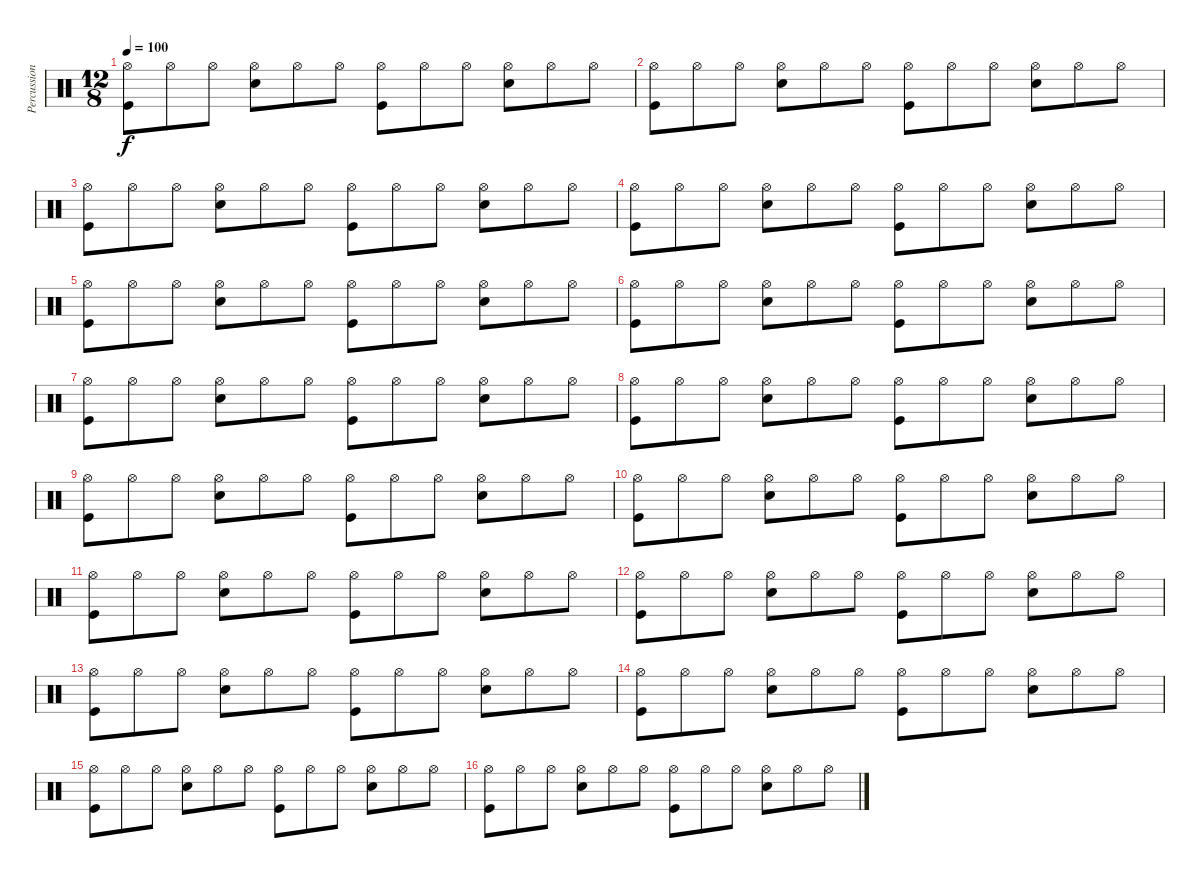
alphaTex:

\track ("Percussion" "Percussion") {instrument percussion}
\staff {score}
\articulation defaults
\ts (12 8)
\tempo 100
\clef neutral
\ks c
("Hi-Hat (open)" "Kick (hit)").8{dy f} "Hi-Hat (open)".8 "Hi-Hat (open)".8 ("Hi-Hat (open)" "Snare (hit) 2").8 "Hi-Hat (open)".8 "Hi-Hat (open)".8 ("Hi-Hat (open)" "Kick (hit)").8 "Hi-Hat (open)".8 "Hi-Hat (open)".8 ("Hi-Hat (open)" "Snare (hit) 2").8 "Hi-Hat (open)".8 "Hi-Hat (open)".8 |
("Hi-Hat (open)" "Kick (hit)").8 "Hi-Hat (open)".8 "Hi-Hat (open)".8 ("Hi-Hat (open)" "Snare (hit) 2").8 "Hi-Hat (open)".8 "Hi-Hat (open)".8 ("Hi-Hat (open)" "Kick (hit)").8 "Hi-Hat (open)".8 "Hi-Hat (open)".8 ("Hi-Hat (open)" "Snare (hit) 2").8 "Hi-Hat (open)".8 "Hi-Hat (open)".8 |
("Hi-Hat (open)" "Kick (hit)").8 "Hi-Hat (open)".8 "Hi-Hat (open)".8 ("Hi-Hat (open)" "Snare (hit) 2").8 "Hi-Hat (open)".8 "Hi-Hat (open)".8 ("Hi-Hat (open)" "Kick (hit)").8 "Hi-Hat (open)".8 "Hi-Hat (open)".8 ("Hi-Hat (open)" "Snare (hit) 2").8 "Hi-Hat (open)".8 "Hi-Hat (open)".8 |
("Hi-Hat (open)" "Kick (hit)").8 "Hi-Hat (open)".8 "Hi-Hat (open)".8 ("Hi-Hat (open)" "Snare (hit) 2").8 "Hi-Hat (open)".8 "Hi-Hat (open)".8 ("Hi-Hat (open)" "Kick (hit)").8 "Hi-Hat (open)".8 "Hi-Hat (open)".8 ("Hi-Hat (open)" "Snare (hit) 2").8 "Hi-Hat (open)".8 "Hi-Hat (open)".8 |
("Hi-Hat (open)" "Kick (hit)").8 "Hi-Hat (open)".8 "Hi-Hat (open)".8 ("Hi-Hat (open)" "Snare (hit) 2").8 "Hi-Hat (open)".8 "Hi-Hat (open)".8 ("Hi-Hat (open)" "Kick (hit)").8 "Hi-Hat (open)".8 "Hi-Hat (open)".8 ("Hi-Hat (open)" "Snare (hit) 2").8 "Hi-Hat (open)".8 "Hi-Hat (open)".8 |
("Hi-Hat (open)" "Kick (hit)").8 "Hi-Hat (open)".8 "Hi-Hat (open)".8 ("Hi-Hat (open)" "Snare (hit) 2").8 "Hi-Hat (open)".8 "Hi-Hat (open)".8 ("Hi-Hat (open)" "Kick (hit)").8 "Hi-Hat (open)".8 "Hi-Hat (open)".8 ("Hi-Hat (open)" "Snare (hit) 2").8 "Hi-Hat (open)".8 "Hi-Hat (open)".8 |
("Hi-Hat (open)" "Kick (hit)").8 "Hi-Hat (open)".8 "Hi-Hat (open)".8 ("Hi-Hat (open)" "Snare (hit) 2").8 "Hi-Hat (open)".8 "Hi-Hat (open)".8 ("Hi-Hat (open)" "Kick (hit)").8 "Hi-Hat (open)".8 "Hi-Hat (open)".8 ("Hi-Hat (open)" "Snare (hit) 2").8 "Hi-Hat (open)".8 "Hi-Hat (open)".8 |
("Hi-Hat (open)" "Kick (hit)").8 "Hi-Hat (open)".8 "Hi-Hat (open)".8 ("Hi-Hat (open)" "Snare (hit) 2").8 "Hi-Hat (open)".8 "Hi-Hat (open)".8 ("Hi-Hat (open)" "Kick (hit)").8 "Hi-Hat (open)".8 "Hi-Hat (open)".8 ("Hi-Hat (open)" "Snare (hit) 2").8 "Hi-Hat (open)".8 "Hi-Hat (open)".8 |
("Hi-Hat (open)" "Kick (hit)").8 "Hi-Hat (open)".8 "Hi-Hat (open)".8 ("Hi-Hat (open)" "Snare (hit) 2").8 "Hi-Hat (open)".8 "Hi-Hat (open)".8 ("Hi-Hat (open)" "Kick (hit)").8 "Hi-Hat (open)".8 "Hi-Hat (open)".8 ("Hi-Hat (open)" "Snare (hit) 2").8 "Hi-Hat (open)".8 "Hi-Hat (open)".8 |
("Hi-Hat (open)" "Kick (hit)").8 "Hi-Hat (open)".8 "Hi-Hat (open)".8 ("Hi-Hat (open)" "Snare (hit) 2").8 "Hi-Hat (open)".8 "Hi-Hat (open)".8 ("Hi-Hat (open)" "Kick (hit)").8 "Hi-Hat (open)".8 "Hi-Hat (open)".8 ("Hi-Hat (open)" "Snare (hit) 2").8 "Hi-Hat (open)".8 "Hi-Hat (open)".8 |
("Hi-Hat (open)" "Kick (hit)").8 "Hi-Hat (open)".8 "Hi-Hat (open)".8 ("Hi-Hat (open)" "Snare (hit) 2").8 "Hi-Hat (open)".8 "Hi-Hat (open)".8 ("Hi-Hat (open)" "Kick (hit)").8 "Hi-Hat (open)".8 "Hi-Hat (open)".8 ("Hi-Hat (open)" "Snare (hit) 2").8 "Hi-Hat (open)".8 "Hi-Hat (open)".8 |
("Hi-Hat (open)" "Kick (hit)").8 "Hi-Hat (open)".8 "Hi-Hat (open)".8 ("Hi-Hat (open)" "Snare (hit) 2").8 "Hi-Hat (open)".8 "Hi-Hat (open)".8 ("Hi-Hat (open)" "Kick (hit)").8 "Hi-Hat (open)".8 "Hi-Hat (open)".8 ("Hi-Hat (open)" "Snare (hit) 2").8 "Hi-Hat (open)".8 "Hi-Hat (open)".8 |
("Hi-Hat (open)" "Kick (hit)").8 "Hi-Hat (open)".8 "Hi-Hat (open)".8 ("Hi-Hat (open)" "Snare (hit) 2").8 "Hi-Hat (open)".8 "Hi-Hat (open)".8 ("Hi-Hat (open)" "Kick (hit)").8 "Hi-Hat (open)".8 "Hi-Hat (open)".8 ("Hi-Hat (open)" "Snare (hit) 2").8 "Hi-Hat (open)".8 "Hi-Hat (open)".8 |
("Hi-Hat (open)" "Kick (hit)").8 "Hi-Hat (open)".8 "Hi-Hat (open)".8 ("Hi-Hat (open)" "Snare (hit) 2").8 "Hi-Hat (open)".8 "Hi-Hat (open)".8 ("Hi-Hat (open)" "Kick (hit)").8 "Hi-Hat (open)".8 "Hi-Hat (open)".8 ("Hi-Hat (open)" "Snare (hit) 2").8 "Hi-Hat (open)".8 "Hi-Hat (open)".8 |
("Hi-Hat (open)" "Kick (hit)").8 "Hi-Hat (open)".8 "Hi-Hat (open)".8 ("Hi-Hat (open)" "Snare (hit) 2").8 "Hi-Hat (open)".8 "Hi-Hat (open)".8 ("Hi-Hat (open)" "Kick (hit)").8 "Hi-Hat (open)".8 "Hi-Hat (open)".8 ("Hi-Hat (open)" "Snare (hit) 2").8 "Hi-Hat (open)".8 "Hi-Hat (open)".8 |
("Hi-Hat (open)" "Kick (hit)").8 "Hi-Hat (open)".8 "Hi-Hat (open)".8 ("Hi-Hat (open)" "Snare (hit) 2").8 "Hi-Hat (open)".8 "Hi-Hat (open)".8 ("Hi-Hat (open)" "Kick (hit)").8 "Hi-Hat (open)".8 "Hi-Hat (open)".8 ("Hi-Hat (open)" "Snare (hit) 2").8 "Hi-Hat (open)".8 "Hi-Hat (open)".8
